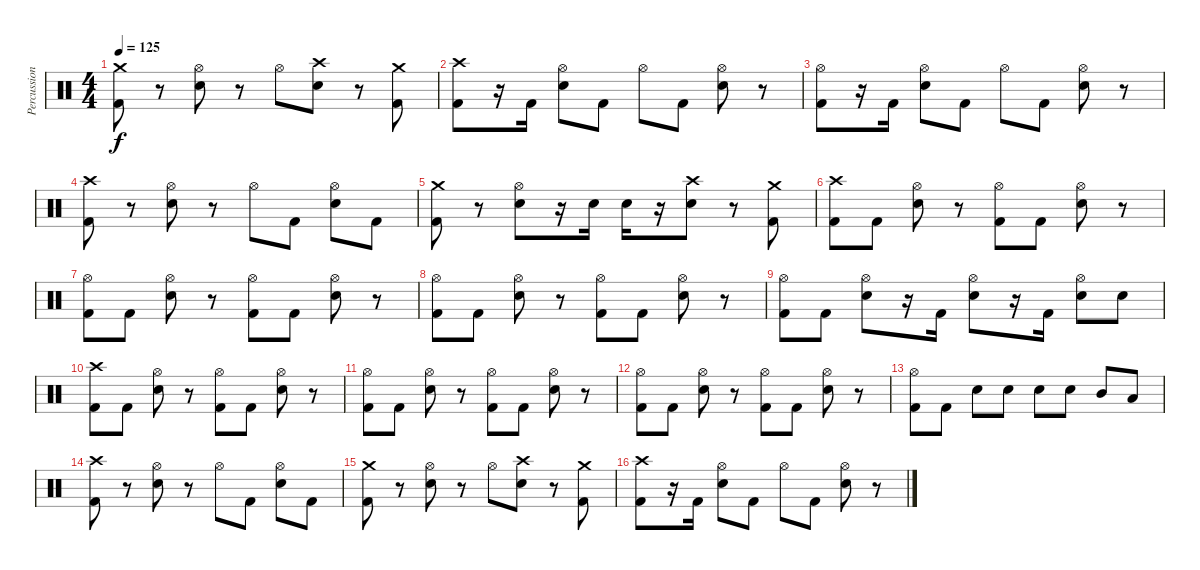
\track ("Percussion" "Percussion") {instrument percussion}
\staff {score}
\articulation defaults
\ts (4 4)
\tempo 125
\clef neutral
\ks c
("Crash medium (hit)" "Kick (hit) 2").8{dy f} r.8 ("Hi-Hat (open)" "Snare (hit) 2").8 r.8 "Hi-Hat (open)".8 ("Crash high (hit)" "Snare (hit) 2").8 r.8 ("Crash medium (hit)" "Kick (hit) 2").8 |
("Crash high (hit)" "Kick (hit) 2").8 r.16 "Kick (hit) 2".16 ("Hi-Hat (open)" "Snare (hit) 2").8 "Kick (hit) 2".8 "Hi-Hat (open)".8 "Kick (hit) 2".8 ("Hi-Hat (open)" "Snare (hit) 2").8 r.8 |
("Hi-Hat (open)" "Kick (hit) 2").8 r.16 "Kick (hit) 2".16 ("Hi-Hat (open)" "Snare (hit) 2").8 "Kick (hit) 2".8 "Hi-Hat (open)".8 "Kick (hit) 2".8 ("Hi-Hat (open)" "Snare (hit) 2").8 r.8 |
("Crash high (hit)" "Kick (hit) 2").8 r.8 ("Hi-Hat (open)" "Snare (hit) 2").8 r.8 "Hi-Hat (open)".8 "Kick (hit) 2".8 ("Hi-Hat (open)" "Snare (hit) 2").8 "Kick (hit) 2".8 |
("Crash medium (hit)" "Kick (hit) 2").8 r.8 ("Hi-Hat (open)" "Snare (hit) 2").8 r.16 "Snare (hit) 2".16 "Snare (hit) 2".16 r.16 ("Crash high (hit)" "Snare (hit) 2").8 r.8 ("Crash medium (hit)" "Kick (hit) 2").8 |
("Crash high (hit)" "Kick (hit) 2").8 "Kick (hit) 2".8 ("Hi-Hat (open)" "Snare (hit) 2").8 r.8 ("Hi-Hat (open)" "Kick (hit) 2").8 "Kick (hit) 2".8 ("Hi-Hat (open)" "Snare (hit) 2").8 r.8 |
("Hi-Hat (open)" "Kick (hit) 2").8 "Kick (hit) 2".8 ("Hi-Hat (open)" "Snare (hit) 2").8 r.8 ("Hi-Hat (open)" "Kick (hit) 2").8 "Kick (hit) 2".8 ("Hi-Hat (open)" "Snare (hit) 2").8 r.8 |
("Hi-Hat (open)" "Kick (hit) 2").8 "Kick (hit) 2".8 ("Hi-Hat (open)" "Snare (hit) 2").8 r.8 ("Hi-Hat (open)" "Kick (hit) 2").8 "Kick (hit) 2".8 ("Hi-Hat (open)" "Snare (hit) 2").8 r.8 |
("Hi-Hat (open)" "Kick (hit) 2").8 "Kick (hit) 2".8 ("Hi-Hat (open)" "Snare (hit) 2").8 r.16 "Kick (hit) 2".16 ("Hi-Hat (open)" "Snare (hit) 2").8 r.16 "Kick (hit) 2".16 ("Hi-Hat (open)" "Snare (hit) 2").8 "Snare (hit) 2".8 |
("Crash high (hit)" "Kick (hit) 2").8 "Kick (hit) 2".8 ("Hi-Hat (open)" "Snare (hit) 2").8 r.8 ("Hi-Hat (open)" "Kick (hit) 2").8 "Kick (hit) 2".8 ("Hi-Hat (open)" "Snare (hit) 2").8 r.8 |
("Hi-Hat (open)" "Kick (hit) 2").8 "Kick (hit) 2".8 ("Hi-Hat (open)" "Snare (hit) 2").8 r.8 ("Hi-Hat (open)" "Kick (hit) 2").8 "Kick (hit) 2".8 ("Hi-Hat (open)" "Snare (hit) 2").8 r.8 |
("Hi-Hat (open)" "Kick (hit) 2").8 "Kick (hit) 2".8 ("Hi-Hat (open)" "Snare (hit) 2").8 r.8 ("Hi-Hat (open)" "Kick (hit) 2").8 "Kick (hit) 2".8 ("Hi-Hat (open)" "Snare (hit) 2").8 r.8 |
("Hi-Hat (open)" "Kick (hit) 2").8 "Kick (hit) 2".8 "Snare (hit) 2".8 "Snare (hit) 2".8 "Snare (hit) 2".8 "Snare (hit) 2".8 "Mid Tom (hit)".8 "Low Tom (hit)".8 |
("Crash high (hit)" "Kick (hit) 2").8 r.8 ("Hi-Hat (open)" "Snare (hit) 2").8 r.8 "Hi-Hat (open)".8 "Kick (hit) 2".8 ("Hi-Hat (open)" "Snare (hit) 2").8 "Kick (hit) 2".8 |
("Crash medium (hit)" "Kick (hit) 2").8 r.8 ("Hi-Hat (open)" "Snare (hit) 2").8 r.8 "Hi-Hat (open)".8 ("Crash high (hit)" "Snare (hit) 2").8 r.8 ("Crash medium (hit)" "Kick (hit) 2").8 |
("Crash high (hit)" "Kick (hit) 2").8 r.16 "Kick (hit) 2".16 ("Hi-Hat (open)" "Snare (hit) 2").8 "Kick (hit) 2".8 "Hi-Hat (open)".8 "Kick (hit) 2".8 ("Hi-Hat (open)" "Snare (hit) 2").8 r.8
